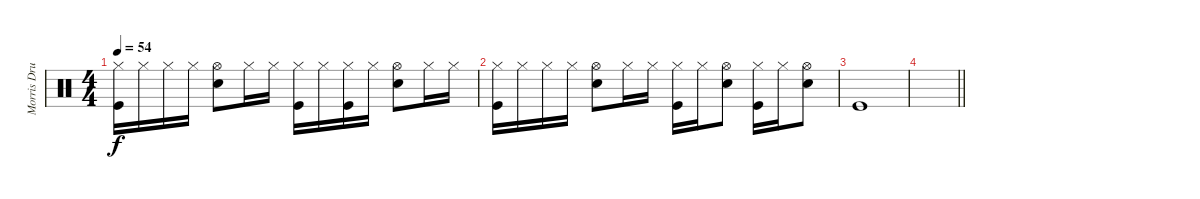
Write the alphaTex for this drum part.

\track ("Morris Drums" "Morris Dru") {instrument percussion}
\staff {score}
\articulation defaults
\ts (4 4)
\tempo 54
\clef neutral
\ks c
("Hi-Hat (closed)" "Kick (hit)").16{dy f} "Hi-Hat (closed)".16 "Hi-Hat (closed)".16 "Hi-Hat (closed)".16 ("Hi-Hat (open)" "Snare (hit) 2").8 "Hi-Hat (closed)".16 "Hi-Hat (closed)".16 ("Hi-Hat (closed)" "Kick (hit)").16 "Hi-Hat (closed)".16 ("Hi-Hat (closed)" "Kick (hit)").16 "Hi-Hat (closed)".16 ("Hi-Hat (open)" "Snare (hit) 2").8 "Hi-Hat (closed)".16 "Hi-Hat (closed)".16 |
("Hi-Hat (closed)" "Kick (hit)").16 "Hi-Hat (closed)".16 "Hi-Hat (closed)".16 "Hi-Hat (closed)".16 ("Hi-Hat (open)" "Snare (hit) 2").8 "Hi-Hat (closed)".16 "Hi-Hat (closed)".16 ("Hi-Hat (closed)" "Kick (hit)").16 "Hi-Hat (closed)".16 ("Hi-Hat (open)" "Snare (hit) 2").8 ("Hi-Hat (closed)" "Kick (hit)").16 "Hi-Hat (closed)".16 ("Hi-Hat (open)" "Snare (hit) 2").8 |
"Kick (hit)".1 |
\barLineRight lightlight
